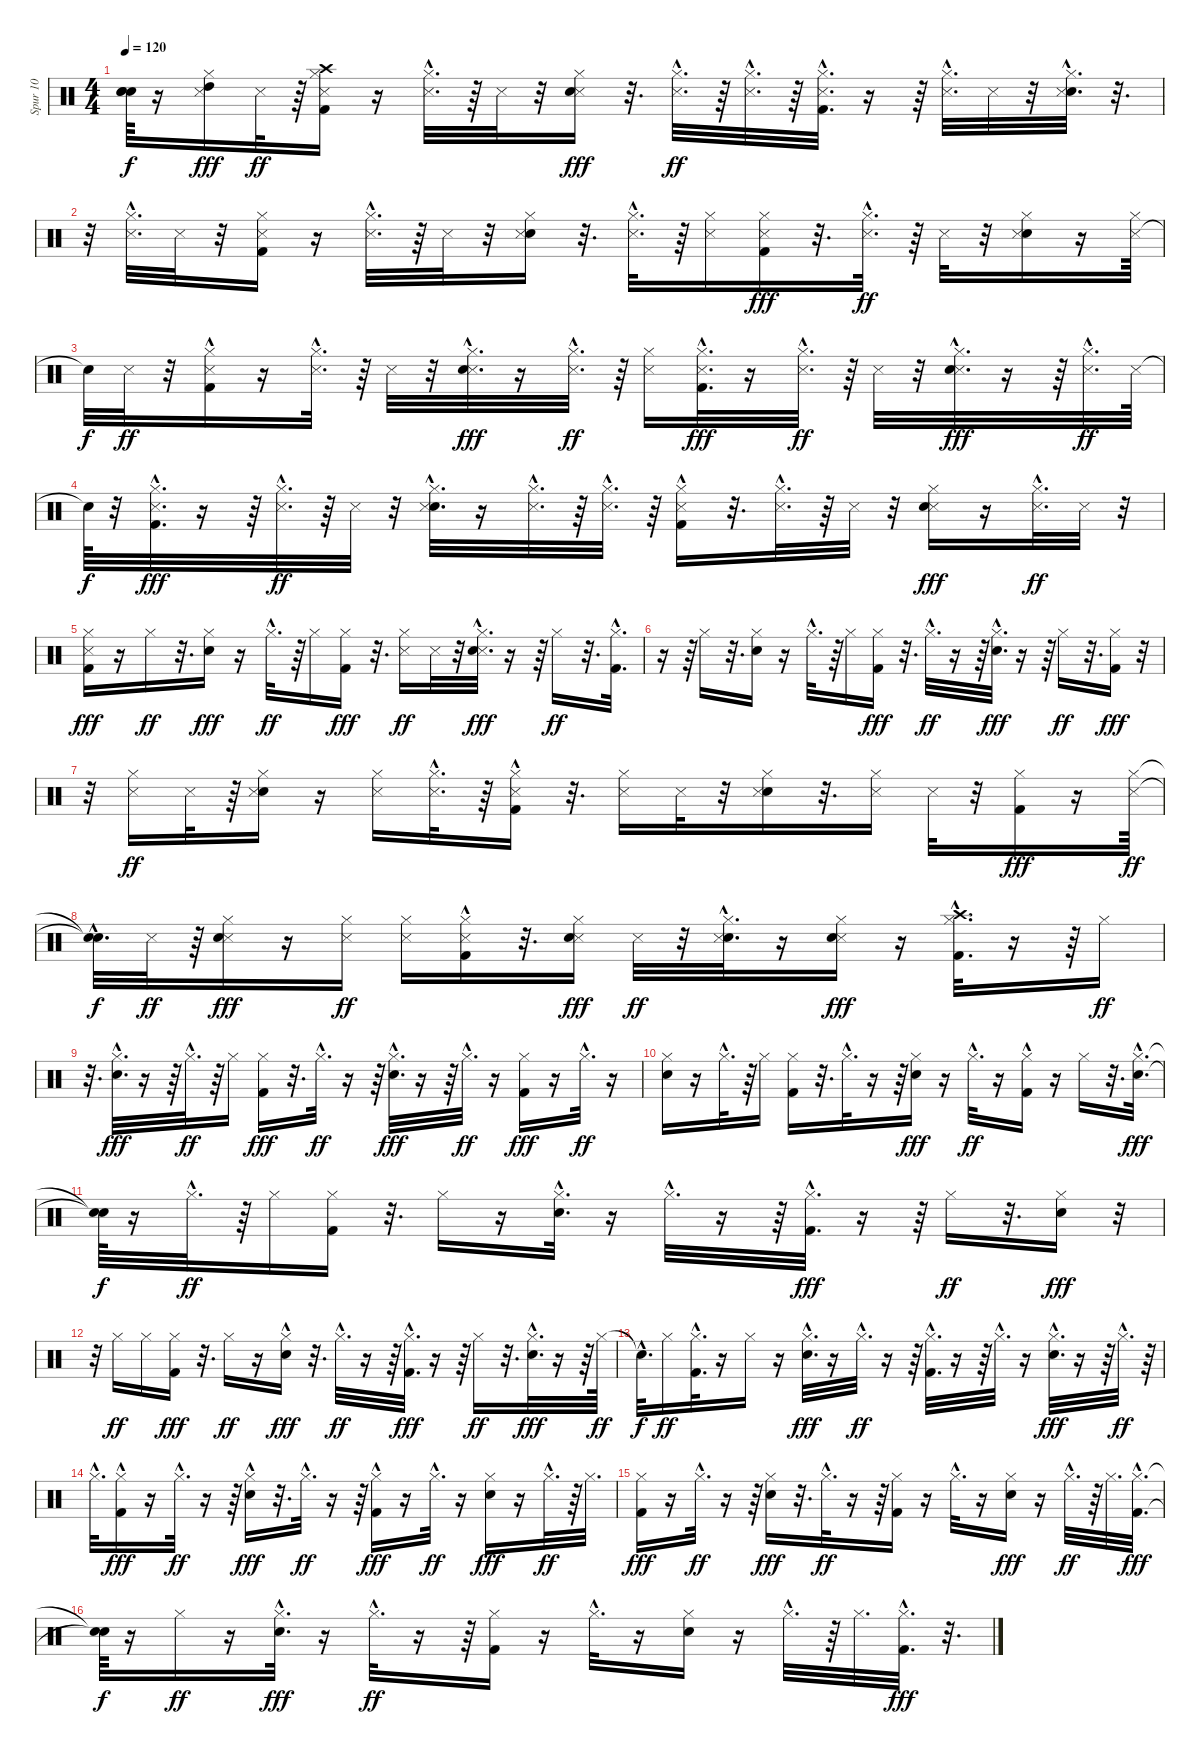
\track ("Spur 10" "Spur 10") {instrument percussion}
\staff {score}
\articulation defaults
\ts (4 4)
\tempo 120
\clef neutral
\ks c
("Snare (hit)"{t} "Snare (hit)"{t} "Snare (hit)"{t}).64{dy f} r.16 ("Snare (side stick) 3" "Hi-Hat (closed)" "High Tom (hit)").16{dy fff} "Snare (side stick) 3".32{dy ff} r.64 ("Snare (side stick) 3" "Hi-Hat (closed)" "Kick (hit) 2" "Crash high (hit)").16 r.16 ("Snare (side stick) 3" "Hi-Hat (closed)"{hac}).32{d} r.64 "Snare (side stick) 3".32 r.32 ("Snare (side stick) 3" "Hi-Hat (closed)" "Snare (hit) 2").16{dy fff} r.32{d} ("Snare (side stick) 3" "Hi-Hat (closed)"{hac}).32{d dy ff} r.64 ("Snare (side stick) 3" "Hi-Hat (closed)"{hac}).32{d} r.64 ("Hi-Hat (closed)"{hac} "Kick (hit) 2"{hac} "Snare (side stick) 3").32{d} r.16 r.64 ("Hi-Hat (closed)"{hac} "Snare (side stick) 3").32{d} "Snare (side stick) 3".32 r.32 ("Hi-Hat (closed)"{hac} "Snare (hit) 2"{hac} "Snare (side stick) 3").32{d} r.32{d} |
r.32 ("Snare (side stick) 3" "Hi-Hat (closed)"{hac}).32{d} "Snare (side stick) 3".32 r.32 ("Kick (hit) 2" "Snare (side stick) 3" "Hi-Hat (closed)").16 r.16 ("Snare (side stick) 3" "Hi-Hat (closed)"{hac}).32{d} r.64 "Snare (side stick) 3".32 r.32 ("Snare (hit) 2" "Snare (side stick) 3" "Hi-Hat (closed)").16 r.32{d} ("Snare (side stick) 3" "Hi-Hat (closed)"{hac}).32{d} r.64 ("Snare (side stick) 3" "Hi-Hat (closed)").16 ("Snare (side stick) 3" "Hi-Hat (closed)" "Kick (hit) 2").16{dy fff} r.32{d} ("Snare (side stick) 3" "Hi-Hat (closed)"{hac}).32{d dy ff} r.64 "Snare (side stick) 3".32 r.32 ("Snare (hit) 2" "Snare (side stick) 3" "Hi-Hat (closed)").16 r.16 ("Snare (side stick) 3" "Hi-Hat (closed)").64 |
"Snare (hit)"{t}.32{dy f} "Snare (side stick) 3".32{dy ff} r.32 ("Hi-Hat (closed)"{hac} "Kick (hit) 2" "Snare (side stick) 3").16 r.16 ("Snare (side stick) 3" "Hi-Hat (closed)"{hac}).32{d} r.64 "Snare (side stick) 3".32 r.32 ("Snare (side stick) 3" "Hi-Hat (closed)"{hac} "Snare (hit) 2"{hac}).32{d dy fff} r.16 ("Snare (side stick) 3" "Hi-Hat (closed)"{hac}).32{d dy ff} r.64 ("Hi-Hat (closed)" "Snare (side stick) 3").16 ("Snare (side stick) 3" "Hi-Hat (closed)"{hac} "Kick (hit) 2"{hac}).32{d dy fff} r.16 ("Snare (side stick) 3" "Hi-Hat (closed)"{hac}).32{d dy ff} r.64 "Snare (side stick) 3".32 r.32 ("Snare (side stick) 3" "Hi-Hat (closed)"{hac} "Snare (hit) 2"{hac}).32{d dy fff} r.16 r.64 ("Snare (side stick) 3" "Hi-Hat (closed)"{hac}).32{d dy ff} "Snare (side stick) 3".64 |
"Snare (hit)"{t}.64{dy f} r.32 ("Snare (side stick) 3" "Hi-Hat (closed)"{hac} "Kick (hit) 2"{hac}).32{d dy fff} r.16 r.64 ("Snare (side stick) 3" "Hi-Hat (closed)"{hac}).32{d dy ff} r.64 "Snare (side stick) 3".32 r.32 ("Hi-Hat (closed)"{hac} "Snare (hit) 2"{hac} "Snare (side stick) 3").32{d} r.16 ("Snare (side stick) 3" "Hi-Hat (closed)"{hac}).32{d} r.64 ("Snare (side stick) 3" "Hi-Hat (closed)"{hac}).32{d} r.64 ("Kick (hit) 2" "Snare (side stick) 3" "Hi-Hat (closed)"{hac}).16 r.32{d} ("Snare (side stick) 3" "Hi-Hat (closed)"{hac}).32{d} r.64 "Snare (side stick) 3".32 r.32 ("Snare (side stick) 3" "Hi-Hat (closed)" "Snare (hit) 2").16{dy fff} r.16 ("Snare (side stick) 3" "Hi-Hat (closed)"{hac}).32{d dy ff} "Snare (side stick) 3".32 r.32 |
("Snare (side stick) 3" "Hi-Hat (closed)" "Kick (hit) 2").16{dy fff} r.16 "Hi-Hat (closed)".16{dy ff} r.32{d} ("Hi-Hat (closed)" "Snare (hit) 2").16{dy fff} r.16 "Hi-Hat (closed)"{hac}.32{d dy ff} r.64 "Hi-Hat (closed)".16 ("Hi-Hat (closed)" "Kick (hit) 2").16{dy fff} r.32{d} ("Snare (side stick) 3" "Hi-Hat (closed)").16{dy ff} "Snare (side stick) 3".32 r.32 ("Snare (side stick) 3" "Hi-Hat (closed)"{hac} "Snare (hit) 2"{hac}).32{d dy fff} r.16 r.64 "Hi-Hat (closed)".16{dy ff} r.32{d} ("Kick (hit) 2"{hac} "Hi-Hat (closed)"{hac}).32{d} |
r.16 r.64 "Hi-Hat (closed)".16 r.32{d} ("Snare (hit) 2" "Hi-Hat (closed)").16 r.16 "Hi-Hat (closed)"{hac}.32{d} r.64 "Hi-Hat (closed)".16 ("Hi-Hat (closed)" "Kick (hit) 2").16{dy fff} r.32{d} "Hi-Hat (closed)"{hac}.32{d dy ff} r.16 r.64 ("Hi-Hat (closed)"{hac} "Snare (hit) 2"{hac}).32{d dy fff} r.16 r.64 "Hi-Hat (closed)".16{dy ff} r.32{d} ("Hi-Hat (closed)" "Kick (hit) 2").16{dy fff} r.32 |
r.32 ("Snare (side stick) 3" "Hi-Hat (closed)").16{dy ff} "Snare (side stick) 3".32 r.64 ("Snare (hit) 2" "Snare (side stick) 3" "Hi-Hat (closed)").16 r.16 ("Snare (side stick) 3" "Hi-Hat (closed)").16 ("Snare (side stick) 3" "Hi-Hat (closed)"{hac}).32{d} r.64 ("Hi-Hat (closed)"{hac} "Kick (hit) 2" "Snare (side stick) 3").16 r.32{d} ("Hi-Hat (closed)" "Snare (side stick) 3").16 "Snare (side stick) 3".32 r.32 ("Hi-Hat (closed)" "Snare (hit) 2" "Snare (side stick) 3").16 r.32{d} ("Snare (side stick) 3" "Hi-Hat (closed)").16 "Snare (side stick) 3".32 r.32 ("Hi-Hat (closed)" "Kick (hit) 2").16{dy fff} r.16 ("Hi-Hat (closed)" "Snare (side stick) 3").64{dy ff} |
("Snare (hit)"{hac t} "Snare (hit)"{t}).32{d dy f} "Snare (side stick) 3".32{dy ff} r.64 ("Snare (side stick) 3" "Hi-Hat (closed)" "Snare (hit) 2").16{dy fff} r.16 ("Snare (side stick) 3" "Hi-Hat (closed)").16{dy ff} ("Hi-Hat (closed)" "Snare (side stick) 3").16 ("Kick (hit) 2" "Snare (side stick) 3" "Hi-Hat (closed)"{hac}).16 r.32{d} ("Snare (side stick) 3" "Hi-Hat (closed)" "Snare (hit) 2").16{dy fff} "Snare (side stick) 3".32{dy ff} r.32 ("Snare (hit) 2"{hac} "Snare (side stick) 3" "Hi-Hat (closed)"{hac}).32{d} r.16 ("Snare (side stick) 3" "Hi-Hat (closed)" "Snare (hit) 2").16{dy fff} r.16 ("Crash high (hit)"{hac} "Hi-Hat (closed)"{hac} "Kick (hit) 2"{hac}).32{d} r.16 r.64 "Hi-Hat (closed)".16{dy ff} |
r.32{d} ("Hi-Hat (closed)"{hac} "Snare (hit) 2"{hac}).32{d dy fff} r.16 r.64 "Hi-Hat (closed)"{hac}.32{d dy ff} r.64 "Hi-Hat (closed)".16 ("Hi-Hat (closed)" "Kick (hit) 2").16{dy fff} r.32{d} "Hi-Hat (closed)"{hac}.32{d dy ff} r.16 r.64 ("Hi-Hat (closed)"{hac} "Snare (hit) 2"{hac}).32{d dy fff} r.16 r.64 "Hi-Hat (closed)"{hac}.32{d dy ff} r.16 ("Hi-Hat (closed)" "Kick (hit) 2").16{dy fff} r.16 "Hi-Hat (closed)"{hac}.32{d dy ff} r.16 |
("Snare (hit) 2" "Hi-Hat (closed)").16 r.16 "Hi-Hat (closed)"{hac}.32{d} r.64 "Hi-Hat (closed)".16 ("Kick (hit) 2" "Hi-Hat (closed)").16 r.32{d} "Hi-Hat (closed)"{hac}.32{d} r.16 r.64 ("Hi-Hat (closed)" "Snare (hit) 2").16{dy fff} r.16 "Hi-Hat (closed)"{hac}.32{d dy ff} r.16 ("Kick (hit) 2"{hac} "Hi-Hat (closed)").16 r.16 "Hi-Hat (closed)".16 r.32{d} ("Hi-Hat (closed)"{hac} "Snare (hit) 2"{hac}).32{d dy fff} |
("Snare (hit)"{t} "Snare (hit)"{t}).64{dy f} r.16 "Hi-Hat (closed)"{hac}.32{d dy ff} r.64 "Hi-Hat (closed)".16 ("Kick (hit) 2" "Hi-Hat (closed)").16 r.32{d} "Hi-Hat (closed)".16 r.16 ("Snare (hit) 2"{hac} "Hi-Hat (closed)"{hac}).32{d} r.16 "Hi-Hat (closed)"{hac}.32{d} r.16 r.64 ("Hi-Hat (closed)"{hac} "Kick (hit) 2"{hac}).32{d dy fff} r.16 r.64 "Hi-Hat (closed)".16{dy ff} r.32{d} ("Hi-Hat (closed)" "Snare (hit) 2").16{dy fff} r.32 |
r.32 "Hi-Hat (closed)".16{dy ff} "Hi-Hat (closed)".16 ("Hi-Hat (closed)" "Kick (hit) 2").16{dy fff} r.32{d} "Hi-Hat (closed)".16{dy ff} r.16 ("Hi-Hat (closed)" "Snare (hit) 2"{hac}).16{dy fff} r.32{d} "Hi-Hat (closed)"{hac}.32{d dy ff} r.16 r.64 ("Hi-Hat (closed)"{hac} "Kick (hit) 2"{hac}).32{d dy fff} r.16 r.64 "Hi-Hat (closed)".16{dy ff} r.32{d} ("Hi-Hat (closed)"{hac} "Snare (hit) 2"{hac}).32{d dy fff} r.16 r.64 "Hi-Hat (closed)".64{dy ff} |
"Snare (hit)"{hac t}.32{d dy f} "Hi-Hat (closed)".16{dy ff} ("Kick (hit) 2"{hac} "Hi-Hat (closed)"{hac}).32{d} r.16 "Hi-Hat (closed)".16 r.16 ("Hi-Hat (closed)"{hac} "Snare (hit) 2"{hac}).32{d dy fff} r.16 "Hi-Hat (closed)"{hac}.32{d dy ff} r.16 r.64 ("Kick (hit) 2"{hac} "Hi-Hat (closed)"{hac}).32{d} r.16 r.64 "Hi-Hat (closed)"{hac}.32{d} r.16 ("Hi-Hat (closed)"{hac} "Snare (hit) 2"{hac}).32{d dy fff} r.16 r.64 "Hi-Hat (closed)"{hac}.32{d dy ff} r.64 |
"Hi-Hat (closed)"{hac}.32{d} ("Hi-Hat (closed)"{hac} "Kick (hit) 2").16{dy fff} r.16 "Hi-Hat (closed)"{hac}.32{d dy ff} r.16 r.64 ("Hi-Hat (closed)"{hac} "Snare (hit) 2").16{dy fff} r.32{d} "Hi-Hat (closed)"{hac}.32{d dy ff} r.16 r.64 ("Hi-Hat (closed)"{hac} "Kick (hit) 2").16{dy fff} r.16 "Hi-Hat (closed)"{hac}.32{d dy ff} r.16 ("Hi-Hat (closed)" "Snare (hit) 2").16{dy fff} r.16 "Hi-Hat (closed)"{hac}.32{d dy ff} r.64 "Hi-Hat (closed)".32{d} |
("Hi-Hat (closed)" "Kick (hit) 2").16{dy fff} r.16 "Hi-Hat (closed)"{hac}.32{d dy ff} r.16 r.64 ("Hi-Hat (closed)" "Snare (hit) 2").16{dy fff} r.32{d} "Hi-Hat (closed)"{hac}.32{d dy ff} r.16 r.64 ("Kick (hit) 2" "Hi-Hat (closed)").16 r.16 "Hi-Hat (closed)"{hac}.32{d} r.16 ("Hi-Hat (closed)" "Snare (hit) 2").16{dy fff} r.16 "Hi-Hat (closed)"{hac}.32{d dy ff} r.64 "Hi-Hat (closed)".32{d} ("Hi-Hat (closed)"{hac} "Kick (hit) 2"{hac}).32{d dy fff} |
("Snare (hit)"{t} "Snare (hit)"{t}).64{dy f} r.16 "Hi-Hat (closed)".16{dy ff} r.16 ("Hi-Hat (closed)"{hac} "Snare (hit) 2"{hac}).32{d dy fff} r.16 "Hi-Hat (closed)"{hac}.32{d dy ff} r.16 r.64 ("Kick (hit) 2" "Hi-Hat (closed)").16 r.16 "Hi-Hat (closed)"{hac}.32{d} r.16 ("Snare (hit) 2" "Hi-Hat (closed)").16 r.16 "Hi-Hat (closed)"{hac}.32{d} r.64 "Hi-Hat (closed)".32{d} ("Hi-Hat (closed)"{hac} "Kick (hit) 2"{hac}).32{d dy fff} r.32{d}
